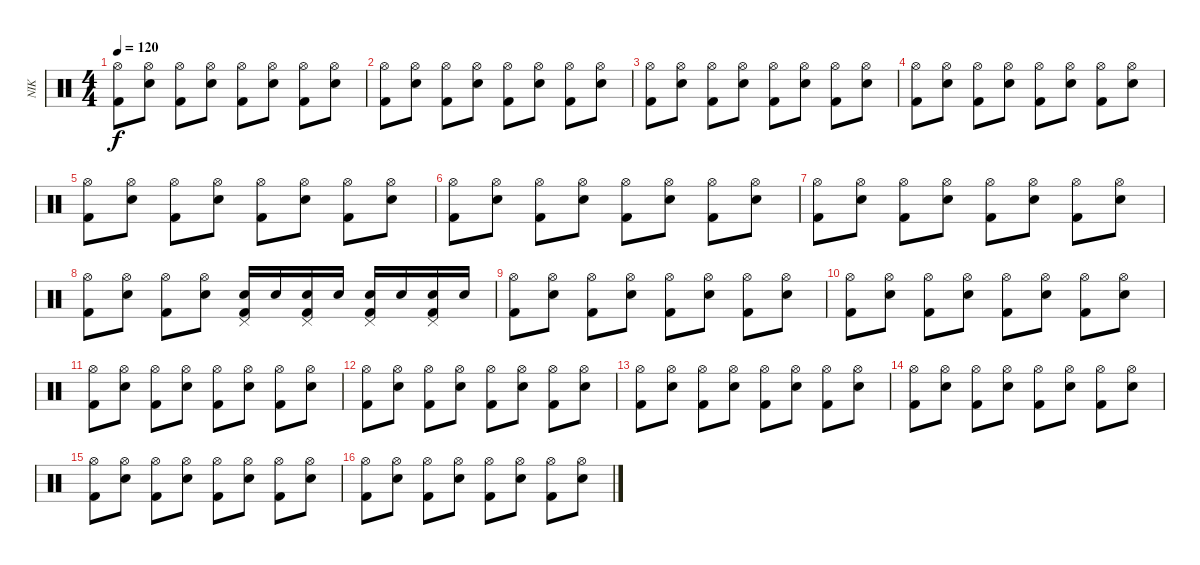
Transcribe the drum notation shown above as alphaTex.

\track ("NIK" "NIK") {instrument percussion}
\staff {score}
\articulation defaults
\ts (4 4)
\tempo 120
\clef neutral
\ks c
("Hi-Hat (open)" "Kick (hit) 2").8{dy f} ("Hi-Hat (open)" "Electric Snare (hit)").8 ("Hi-Hat (open)" "Kick (hit) 2").8 ("Hi-Hat (open)" "Electric Snare (hit)").8 ("Hi-Hat (open)" "Kick (hit) 2").8 ("Hi-Hat (open)" "Electric Snare (hit)").8 ("Hi-Hat (open)" "Kick (hit) 2").8 ("Hi-Hat (open)" "Electric Snare (hit)").8 |
("Hi-Hat (open)" "Kick (hit) 2").8 ("Hi-Hat (open)" "Electric Snare (hit)").8 ("Hi-Hat (open)" "Kick (hit) 2").8 ("Hi-Hat (open)" "Electric Snare (hit)").8 ("Hi-Hat (open)" "Kick (hit) 2").8 ("Hi-Hat (open)" "Electric Snare (hit)").8 ("Hi-Hat (open)" "Kick (hit) 2").8 ("Hi-Hat (open)" "Electric Snare (hit)").8 |
("Hi-Hat (open)" "Kick (hit) 2").8 ("Hi-Hat (open)" "Electric Snare (hit)").8 ("Hi-Hat (open)" "Kick (hit) 2").8 ("Hi-Hat (open)" "Electric Snare (hit)").8 ("Hi-Hat (open)" "Kick (hit) 2").8 ("Hi-Hat (open)" "Electric Snare (hit)").8 ("Hi-Hat (open)" "Kick (hit) 2").8 ("Hi-Hat (open)" "Electric Snare (hit)").8 |
("Hi-Hat (open)" "Kick (hit) 2").8 ("Hi-Hat (open)" "Electric Snare (hit)").8 ("Hi-Hat (open)" "Kick (hit) 2").8 ("Hi-Hat (open)" "Electric Snare (hit)").8 ("Hi-Hat (open)" "Kick (hit) 2").8 ("Hi-Hat (open)" "Electric Snare (hit)").8 ("Hi-Hat (open)" "Kick (hit) 2").8 ("Hi-Hat (open)" "Electric Snare (hit)").8 |
("Hi-Hat (open)" "Kick (hit) 2").8 ("Hi-Hat (open)" "Electric Snare (hit)").8 ("Hi-Hat (open)" "Kick (hit) 2").8 ("Hi-Hat (open)" "Electric Snare (hit)").8 ("Hi-Hat (open)" "Kick (hit) 2").8 ("Hi-Hat (open)" "Electric Snare (hit)").8 ("Hi-Hat (open)" "Kick (hit) 2").8 ("Hi-Hat (open)" "Electric Snare (hit)").8 |
("Hi-Hat (open)" "Kick (hit) 2").8 ("Hi-Hat (open)" "Electric Snare (hit)").8 ("Hi-Hat (open)" "Kick (hit) 2").8 ("Hi-Hat (open)" "Electric Snare (hit)").8 ("Hi-Hat (open)" "Kick (hit) 2").8 ("Hi-Hat (open)" "Electric Snare (hit)").8 ("Hi-Hat (open)" "Kick (hit) 2").8 ("Hi-Hat (open)" "Electric Snare (hit)").8 |
("Hi-Hat (open)" "Kick (hit) 2").8 ("Hi-Hat (open)" "Electric Snare (hit)").8 ("Hi-Hat (open)" "Kick (hit) 2").8 ("Hi-Hat (open)" "Electric Snare (hit)").8 ("Hi-Hat (open)" "Kick (hit) 2").8 ("Hi-Hat (open)" "Electric Snare (hit)").8 ("Hi-Hat (open)" "Kick (hit) 2").8 ("Hi-Hat (open)" "Electric Snare (hit)").8 |
("Hi-Hat (open)" "Kick (hit) 2").8 ("Hi-Hat (open)" "Electric Snare (hit)").8 ("Hi-Hat (open)" "Kick (hit) 2").8 ("Hi-Hat (open)" "Electric Snare (hit)").8 ("Electric Snare (hit)" "Kick (hit) 2" "Pedal Hi-Hat (hit)").16 "Electric Snare (hit)".16 ("Electric Snare (hit)" "Kick (hit) 2" "Pedal Hi-Hat (hit)").16 "Electric Snare (hit)".16 ("Electric Snare (hit)" "Kick (hit) 2" "Pedal Hi-Hat (hit)").16 "Electric Snare (hit)".16 ("Electric Snare (hit)" "Kick (hit) 2" "Pedal Hi-Hat (hit)").16 "Electric Snare (hit)".16 |
("Hi-Hat (open)" "Kick (hit) 2").8 ("Hi-Hat (open)" "Electric Snare (hit)").8 ("Hi-Hat (open)" "Kick (hit) 2").8 ("Hi-Hat (open)" "Electric Snare (hit)").8 ("Hi-Hat (open)" "Kick (hit) 2").8 ("Hi-Hat (open)" "Electric Snare (hit)").8 ("Hi-Hat (open)" "Kick (hit) 2").8 ("Hi-Hat (open)" "Electric Snare (hit)").8 |
("Hi-Hat (open)" "Kick (hit) 2").8 ("Hi-Hat (open)" "Electric Snare (hit)").8 ("Hi-Hat (open)" "Kick (hit) 2").8 ("Hi-Hat (open)" "Electric Snare (hit)").8 ("Hi-Hat (open)" "Kick (hit) 2").8 ("Hi-Hat (open)" "Electric Snare (hit)").8 ("Hi-Hat (open)" "Kick (hit) 2").8 ("Hi-Hat (open)" "Electric Snare (hit)").8 |
("Hi-Hat (open)" "Kick (hit) 2").8 ("Hi-Hat (open)" "Electric Snare (hit)").8 ("Hi-Hat (open)" "Kick (hit) 2").8 ("Hi-Hat (open)" "Electric Snare (hit)").8 ("Hi-Hat (open)" "Kick (hit) 2").8 ("Hi-Hat (open)" "Electric Snare (hit)").8 ("Hi-Hat (open)" "Kick (hit) 2").8 ("Hi-Hat (open)" "Electric Snare (hit)").8 |
("Hi-Hat (open)" "Kick (hit) 2").8 ("Hi-Hat (open)" "Electric Snare (hit)").8 ("Hi-Hat (open)" "Kick (hit) 2").8 ("Hi-Hat (open)" "Electric Snare (hit)").8 ("Hi-Hat (open)" "Kick (hit) 2").8 ("Hi-Hat (open)" "Electric Snare (hit)").8 ("Hi-Hat (open)" "Kick (hit) 2").8 ("Hi-Hat (open)" "Electric Snare (hit)").8 |
("Hi-Hat (open)" "Kick (hit) 2").8 ("Hi-Hat (open)" "Electric Snare (hit)").8 ("Hi-Hat (open)" "Kick (hit) 2").8 ("Hi-Hat (open)" "Electric Snare (hit)").8 ("Hi-Hat (open)" "Kick (hit) 2").8 ("Hi-Hat (open)" "Electric Snare (hit)").8 ("Hi-Hat (open)" "Kick (hit) 2").8 ("Hi-Hat (open)" "Electric Snare (hit)").8 |
("Hi-Hat (open)" "Kick (hit) 2").8 ("Hi-Hat (open)" "Electric Snare (hit)").8 ("Hi-Hat (open)" "Kick (hit) 2").8 ("Hi-Hat (open)" "Electric Snare (hit)").8 ("Hi-Hat (open)" "Kick (hit) 2").8 ("Hi-Hat (open)" "Electric Snare (hit)").8 ("Hi-Hat (open)" "Kick (hit) 2").8 ("Hi-Hat (open)" "Electric Snare (hit)").8 |
("Hi-Hat (open)" "Kick (hit) 2").8 ("Hi-Hat (open)" "Electric Snare (hit)").8 ("Hi-Hat (open)" "Kick (hit) 2").8 ("Hi-Hat (open)" "Electric Snare (hit)").8 ("Hi-Hat (open)" "Kick (hit) 2").8 ("Hi-Hat (open)" "Electric Snare (hit)").8 ("Hi-Hat (open)" "Kick (hit) 2").8 ("Hi-Hat (open)" "Electric Snare (hit)").8 |
("Hi-Hat (open)" "Kick (hit) 2").8 ("Hi-Hat (open)" "Electric Snare (hit)").8 ("Hi-Hat (open)" "Kick (hit) 2").8 ("Hi-Hat (open)" "Electric Snare (hit)").8 ("Hi-Hat (open)" "Kick (hit) 2").8 ("Hi-Hat (open)" "Electric Snare (hit)").8 ("Hi-Hat (open)" "Kick (hit) 2").8 ("Hi-Hat (open)" "Electric Snare (hit)").8
